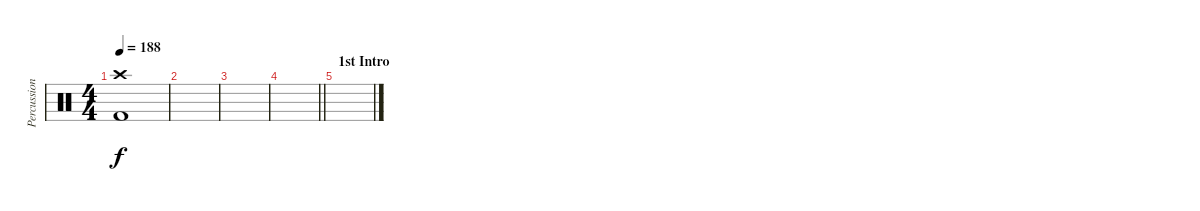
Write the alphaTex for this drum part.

\track ("Percussion" "Percussion") {instrument percussion}
\staff {score}
\articulation defaults
\ts (4 4)
\tempo 188
\clef neutral
\ks c
("Crash high (hit)" "Kick (hit) 2").1{dy f} |
|
|
\barLineRight lightlight
|
\section ("" "1st Intro")
